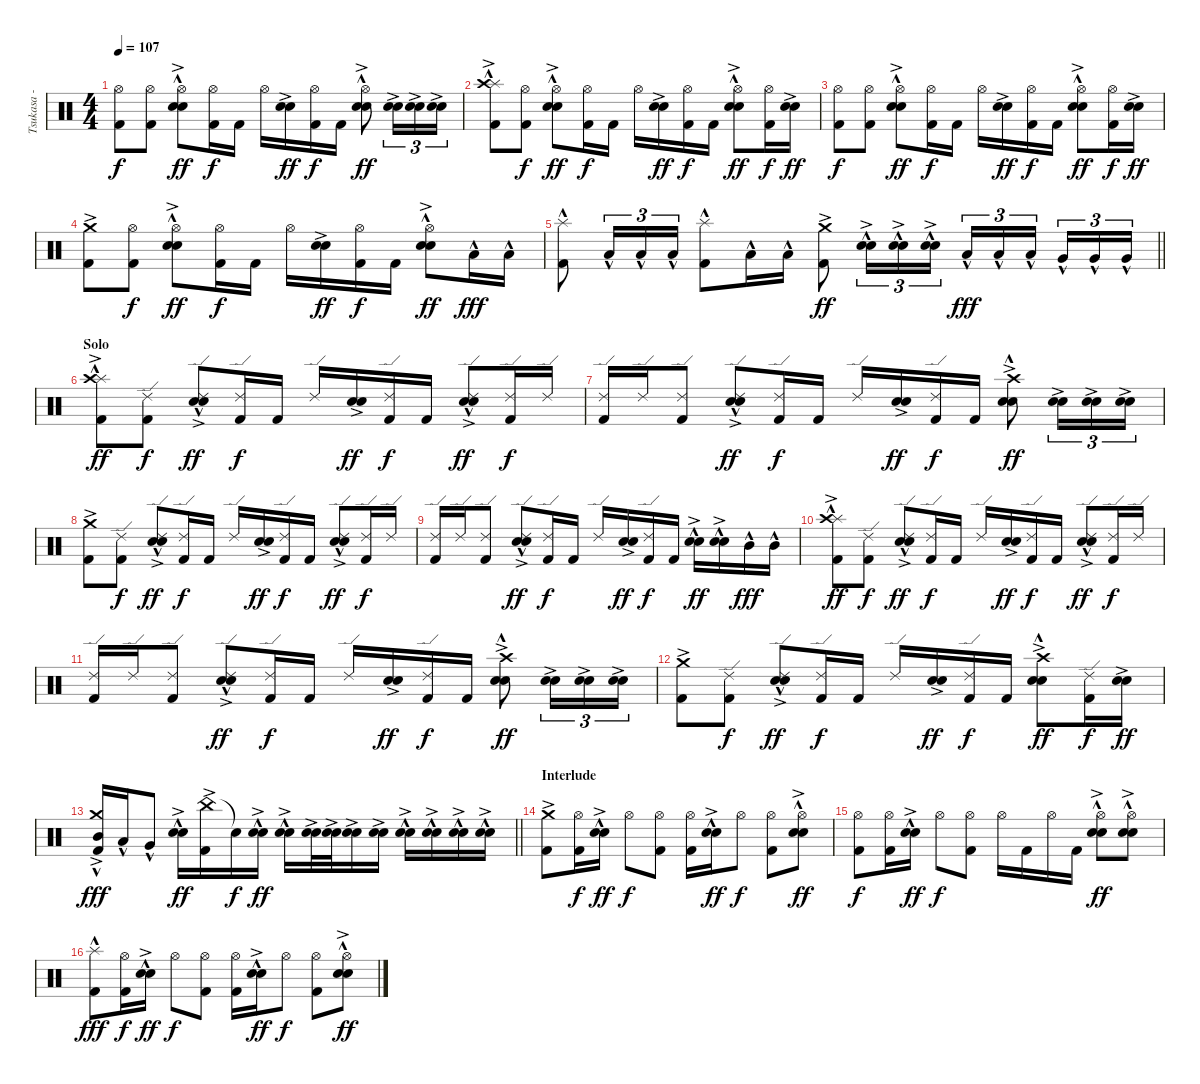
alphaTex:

\track ("Tsukasa - Drums" "Tsukasa - ") {instrument percussion}
\staff {score}
\articulation defaults
\ts (4 4)
\tempo 107
\clef neutral
\ks c
("Hi-Hat (open)" "Kick (hit) 2").8{dy f} ("Hi-Hat (open)" "Kick (hit) 2").8 ("Hi-Hat (open)" "Electric Snare (hit)"{hac} "Snare (hit) 2"{ac}).8{dy ff} ("Hi-Hat (open)" "Kick (hit) 2").16{dy f} "Kick (hit) 2".16 "Hi-Hat (open)".16 ("Electric Snare (hit)"{ac} "Snare (hit) 2").16{dy ff} ("Hi-Hat (open)" "Kick (hit) 2").16{dy f} "Kick (hit) 2".16 ("Hi-Hat (open)" "Electric Snare (hit)"{hac} "Snare (hit) 2"{ac}).8{dy ff} ("Electric Snare (hit)"{ac} "Snare (hit) 2"{ac}).16{tu (3 2)} ("Electric Snare (hit)"{ac} "Snare (hit) 2"{ac}).16{tu (3 2)} ("Electric Snare (hit)"{ac} "Snare (hit) 2"{ac}).16{tu (3 2)} |
("Splash (hit)"{hac} "Crash high (hit)"{ac} "Kick (hit) 2").8 ("Hi-Hat (open)" "Kick (hit) 2").8{dy f} ("Hi-Hat (open)" "Electric Snare (hit)"{hac} "Snare (hit) 2"{ac}).8{dy ff} ("Hi-Hat (open)" "Kick (hit) 2").16{dy f} "Kick (hit) 2".16 "Hi-Hat (open)".16 ("Electric Snare (hit)"{ac} "Snare (hit) 2").16{dy ff} ("Hi-Hat (open)" "Kick (hit) 2").16{dy f} "Kick (hit) 2".16 ("Hi-Hat (open)" "Electric Snare (hit)"{hac} "Snare (hit) 2"{ac}).8{dy ff} ("Hi-Hat (open)" "Kick (hit) 2").16{dy f} ("Electric Snare (hit)"{ac} "Snare (hit) 2").16{dy ff} |
("Hi-Hat (open)" "Kick (hit) 2").8{dy f} ("Hi-Hat (open)" "Kick (hit) 2").8 ("Hi-Hat (open)" "Electric Snare (hit)"{hac} "Snare (hit) 2"{ac}).8{dy ff} ("Hi-Hat (open)" "Kick (hit) 2").16{dy f} "Kick (hit) 2".16 "Hi-Hat (open)".16 ("Electric Snare (hit)"{ac} "Snare (hit) 2").16{dy ff} ("Hi-Hat (open)" "Kick (hit) 2").16{dy f} "Kick (hit) 2".16 ("Hi-Hat (open)" "Electric Snare (hit)"{hac} "Snare (hit) 2"{ac}).8{dy ff} ("Hi-Hat (open)" "Kick (hit) 2").16{dy f} ("Electric Snare (hit)"{ac} "Snare (hit) 2").16{dy ff} |
("Crash medium (hit)"{ac} "Kick (hit) 2").8 ("Hi-Hat (open)" "Kick (hit) 2").8{dy f} ("Hi-Hat (open)" "Electric Snare (hit)"{hac} "Snare (hit) 2"{ac}).8{dy ff} ("Hi-Hat (open)" "Kick (hit) 2").16{dy f} "Kick (hit) 2".16 "Hi-Hat (open)".16 ("Electric Snare (hit)"{ac} "Snare (hit) 2").16{dy ff} ("Hi-Hat (open)" "Kick (hit) 2").16{dy f} "Kick (hit) 2".16 ("Hi-Hat (open)" "Electric Snare (hit)"{hac} "Snare (hit) 2"{ac}).8{dy ff} "Low Tom (hit)"{hac}.16{dy fff} "Low Tom (hit)"{hac}.16 |
\barLineRight lightlight
("Splash (hit)"{hac} "Kick (hit) 2").8 "Low Tom (hit)"{hac}.16{tu (3 2)} "Low Tom (hit)"{hac}.16{tu (3 2)} "Low Tom (hit)"{hac}.16{tu (3 2)} ("Splash (hit)"{hac} "Kick (hit) 2").8 "Low Tom (hit)"{hac}.16 "Low Tom (hit)"{hac}.16 ("Crash medium (hit)"{ac} "Kick (hit) 2").8{dy ff} ("Electric Snare (hit)"{hac} "Snare (hit) 2"{ac}).16{tu (3 2)} ("Electric Snare (hit)"{hac} "Snare (hit) 2"{ac}).16{tu (3 2)} ("Electric Snare (hit)"{hac} "Snare (hit) 2"{ac}).16{tu (3 2)} "Low Tom (hit)"{hac}.16{tu (3 2) dy fff} "Low Tom (hit)"{hac}.16{tu (3 2)} "Low Tom (hit)"{hac}.16{tu (3 2) beam splitsecondary} "Very Low Tom (hit)"{hac}.16{tu (3 2)} "Very Low Tom (hit)"{hac}.16{tu (3 2)} "Very Low Tom (hit)"{hac}.16{tu (3 2)} |
\section ("" "Solo")
("Splash (hit)"{hac} "Crash high (hit)"{ac} "Kick (hit) 2").8{dy ff} ("Ride (edge) 2" "Kick (hit) 2").8{dy f} ("Ride (edge) 2" "Electric Snare (hit)"{hac} "Snare (hit) 2"{ac}).8{dy ff} ("Ride (edge) 2" "Kick (hit) 2").16{dy f} "Kick (hit) 2".16 "Ride (edge) 2".16 ("Electric Snare (hit)"{ac} "Snare (hit) 2").16{dy ff} ("Ride (edge) 2" "Kick (hit) 2").16{dy f} "Kick (hit) 2".16 ("Ride (edge) 2" "Electric Snare (hit)"{hac} "Snare (hit) 2"{ac}).8{dy ff} ("Ride (edge) 2" "Kick (hit) 2").16{dy f} "Ride (edge) 2".16 |
("Ride (edge) 2" "Kick (hit) 2").16 "Ride (edge) 2".16 ("Ride (edge) 2" "Kick (hit) 2").8 ("Ride (edge) 2" "Electric Snare (hit)"{hac} "Snare (hit) 2"{ac}).8{dy ff} ("Ride (edge) 2" "Kick (hit) 2").16{dy f} "Kick (hit) 2".16 "Ride (edge) 2".16 ("Electric Snare (hit)"{ac} "Snare (hit) 2").16{dy ff} ("Ride (edge) 2" "Kick (hit) 2").16{dy f} "Kick (hit) 2".16 ("Crash high (hit)"{ac} "Electric Snare (hit)"{hac} "Snare (hit) 2"{ac}).8{dy ff} ("Electric Snare (hit)"{ac} "Snare (hit) 2"{ac}).16{tu (3 2)} ("Electric Snare (hit)"{ac} "Snare (hit) 2"{ac}).16{tu (3 2)} ("Electric Snare (hit)"{ac} "Snare (hit) 2"{ac}).16{tu (3 2)} |
("Crash medium (hit)"{ac} "Kick (hit) 2").8 ("Ride (edge) 2" "Kick (hit) 2").8{dy f} ("Ride (edge) 2" "Electric Snare (hit)"{hac} "Snare (hit) 2"{ac}).8{dy ff} ("Ride (edge) 2" "Kick (hit) 2").16{dy f} "Kick (hit) 2".16 "Ride (edge) 2".16 ("Electric Snare (hit)"{ac} "Snare (hit) 2").16{dy ff} ("Ride (edge) 2" "Kick (hit) 2").16{dy f} "Kick (hit) 2".16 ("Ride (edge) 2" "Electric Snare (hit)"{hac} "Snare (hit) 2"{ac}).8{dy ff} ("Ride (edge) 2" "Kick (hit) 2").16{dy f} "Ride (edge) 2".16 |
("Ride (edge) 2" "Kick (hit) 2").16 "Ride (edge) 2".16 ("Ride (edge) 2" "Kick (hit) 2").8 ("Ride (edge) 2" "Electric Snare (hit)"{hac} "Snare (hit) 2"{ac}).8{dy ff} ("Ride (edge) 2" "Kick (hit) 2").16{dy f} "Kick (hit) 2".16 "Ride (edge) 2".16 ("Electric Snare (hit)"{ac} "Snare (hit) 2").16{dy ff} ("Ride (edge) 2" "Kick (hit) 2").16{dy f} "Kick (hit) 2".16 ("Electric Snare (hit)"{hac} "Snare (hit) 2"{ac}).16{dy ff} ("Electric Snare (hit)"{hac} "Snare (hit) 2"{ac}).16 "Mid Tom (hit)"{hac}.16{dy fff} "Mid Tom (hit)"{hac}.16 |
("Splash (hit)"{hac} "Crash high (hit)"{ac} "Kick (hit) 2").8{dy ff} ("Ride (edge) 2" "Kick (hit) 2").8{dy f} ("Ride (edge) 2" "Electric Snare (hit)"{hac} "Snare (hit) 2"{ac}).8{dy ff} ("Ride (edge) 2" "Kick (hit) 2").16{dy f} "Kick (hit) 2".16 "Ride (edge) 2".16 ("Electric Snare (hit)"{ac} "Snare (hit) 2").16{dy ff} ("Ride (edge) 2" "Kick (hit) 2").16{dy f} "Kick (hit) 2".16 ("Ride (edge) 2" "Electric Snare (hit)"{hac} "Snare (hit) 2"{ac}).8{dy ff} ("Ride (edge) 2" "Kick (hit) 2").16{dy f} "Ride (edge) 2".16 |
("Ride (edge) 2" "Kick (hit) 2").16 "Ride (edge) 2".16 ("Ride (edge) 2" "Kick (hit) 2").8 ("Ride (edge) 2" "Electric Snare (hit)"{hac} "Snare (hit) 2"{ac}).8{dy ff} ("Ride (edge) 2" "Kick (hit) 2").16{dy f} "Kick (hit) 2".16 "Ride (edge) 2".16 ("Electric Snare (hit)"{ac} "Snare (hit) 2").16{dy ff} ("Ride (edge) 2" "Kick (hit) 2").16{dy f} "Kick (hit) 2".16 ("Crash high (hit)"{ac} "Electric Snare (hit)"{hac} "Snare (hit) 2"{ac}).8{dy ff} ("Electric Snare (hit)"{ac} "Snare (hit) 2"{ac}).16{tu (3 2)} ("Electric Snare (hit)"{ac} "Snare (hit) 2"{ac}).16{tu (3 2)} ("Electric Snare (hit)"{ac} "Snare (hit) 2"{ac}).16{tu (3 2)} |
("Crash medium (hit)"{ac} "Kick (hit) 2").8 ("Ride (edge) 2" "Kick (hit) 2").8{dy f} ("Ride (edge) 2" "Electric Snare (hit)"{hac} "Snare (hit) 2"{ac}).8{dy ff} ("Ride (edge) 2" "Kick (hit) 2").16{dy f} "Kick (hit) 2".16 "Ride (edge) 2".16 ("Electric Snare (hit)"{ac} "Snare (hit) 2").16{dy ff} ("Ride (edge) 2" "Kick (hit) 2").16{dy f} "Kick (hit) 2".16 ("Crash high (hit)"{ac} "Electric Snare (hit)"{hac} "Snare (hit) 2"{ac}).8{dy ff} ("Ride (edge) 2" "Kick (hit) 2").16{dy f} ("Electric Snare (hit)"{ac} "Snare (hit) 2").16{dy ff} |
\barLineRight lightlight
("Crash medium (hit)"{ac} "Mid Tom (hit)"{hac} "Kick (hit) 2").16{dy fff} "Low Tom (hit)"{hac}.16 "Very Low Tom (hit)"{hac}.8 ("Electric Snare (hit)"{hac} "Snare (hit) 2"{ac}).16{dy ff} ("China (hit)"{ac} "Kick (hit) 2").16 "Snare (hit)"{t}.16{dy f} ("Electric Snare (hit)"{hac} "Snare (hit) 2"{ac}).16{dy ff} ("Electric Snare (hit)"{hac} "Snare (hit) 2"{ac}).16 ("Electric Snare (hit)"{ac} "Snare (hit) 2"{ac}).32 ("Electric Snare (hit)"{ac} "Snare (hit) 2"{ac}).32 ("Electric Snare (hit)"{ac} "Snare (hit) 2"{ac}).16 ("Electric Snare (hit)"{ac} "Snare (hit) 2"{ac}).16 ("Electric Snare (hit)"{hac} "Snare (hit) 2"{ac}).16 ("Electric Snare (hit)"{hac} "Snare (hit) 2"{ac}).16 ("Electric Snare (hit)"{hac} "Snare (hit) 2"{ac}).16 ("Electric Snare (hit)"{hac} "Snare (hit) 2"{ac}).16 |
\section ("" "Interlude")
("Crash medium (hit)"{ac} "Kick (hit) 2").8 ("Hi-Hat (open)" "Kick (hit) 2").16{dy f} ("Electric Snare (hit)"{hac} "Snare (hit) 2"{ac}).16{dy ff} "Hi-Hat (open)".8{dy f} ("Hi-Hat (open)" "Kick (hit) 2").8 ("Hi-Hat (open)" "Kick (hit) 2").16 ("Electric Snare (hit)"{hac} "Snare (hit) 2"{ac}).16{dy ff} "Hi-Hat (open)".8{dy f} ("Hi-Hat (open)" "Kick (hit) 2").8 ("Hi-Hat (open)" "Electric Snare (hit)"{hac} "Snare (hit) 2"{ac}).8{dy ff} |
("Hi-Hat (open)" "Kick (hit) 2").8{dy f} ("Hi-Hat (open)" "Kick (hit) 2").16 ("Electric Snare (hit)"{hac} "Snare (hit) 2"{ac}).16{dy ff} "Hi-Hat (open)".8{dy f} ("Hi-Hat (open)" "Kick (hit) 2").8 "Hi-Hat (open)".16 "Kick (hit) 2".16 "Hi-Hat (open)".16 "Kick (hit) 2".16 ("Hi-Hat (open)" "Electric Snare (hit)"{hac} "Snare (hit) 2"{ac}).8{dy ff} ("Hi-Hat (open)" "Electric Snare (hit)"{hac} "Snare (hit) 2"{ac}).8 |
("Splash (hit)"{hac} "Kick (hit) 2").8{dy fff} ("Hi-Hat (open)" "Kick (hit) 2").16{dy f} ("Electric Snare (hit)"{hac} "Snare (hit) 2"{ac}).16{dy ff} "Hi-Hat (open)".8{dy f} ("Hi-Hat (open)" "Kick (hit) 2").8 ("Hi-Hat (open)" "Kick (hit) 2").16 ("Electric Snare (hit)"{hac} "Snare (hit) 2"{ac}).16{dy ff} "Hi-Hat (open)".8{dy f} ("Hi-Hat (open)" "Kick (hit) 2").8 ("Hi-Hat (open)" "Electric Snare (hit)"{hac} "Snare (hit) 2"{ac}).8{dy ff}
